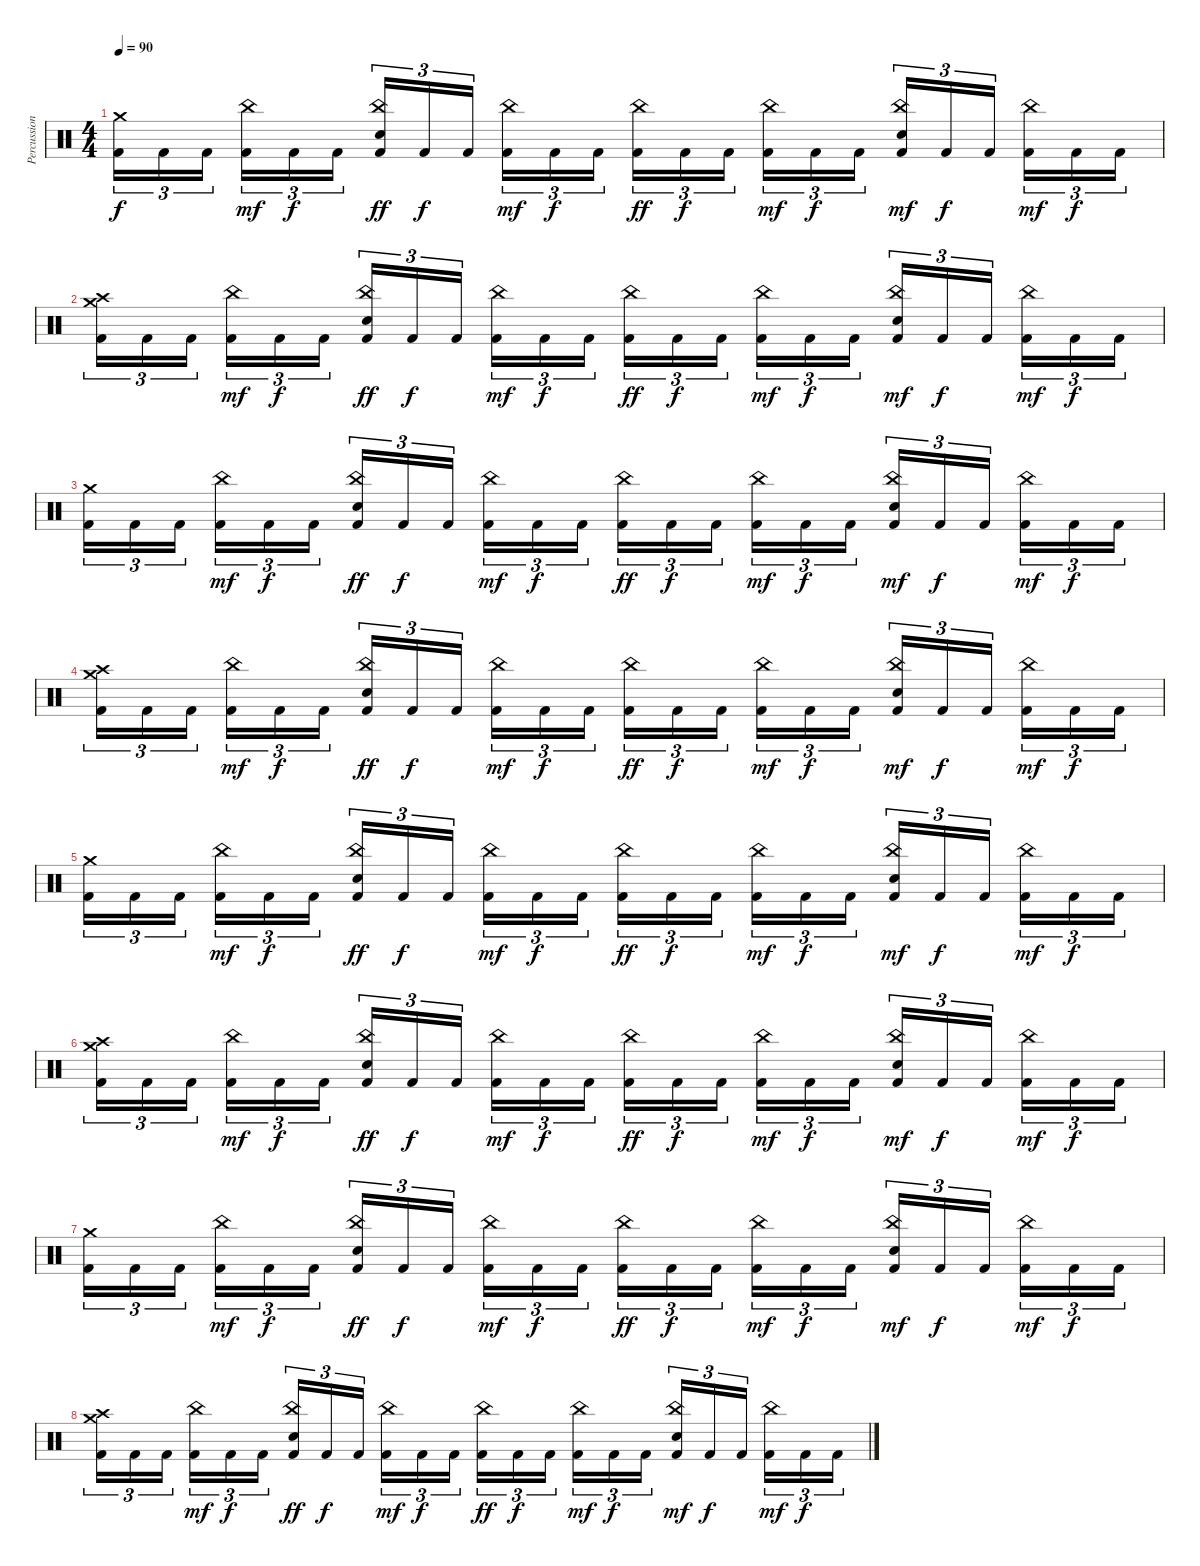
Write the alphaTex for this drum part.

\track ("Percussion" "Percussion") {instrument percussion}
\staff {score}
\articulation defaults
\ts (4 4)
\tempo 90
\clef neutral
\ks c
("Crash medium (hit)" "Kick (hit) 2").16{tu (3 2) dy f} "Kick (hit) 2".16{tu (3 2)} "Kick (hit) 2".16{tu (3 2) beam splitsecondary} ("China (hit)" "Kick (hit) 2").16{tu (3 2) dy mf} "Kick (hit) 2".16{tu (3 2) dy f} "Kick (hit) 2".16{tu (3 2)} ("China (hit)" "Electric Snare (hit)" "Kick (hit) 2").16{tu (3 2) dy ff} "Kick (hit) 2".16{tu (3 2) dy f} "Kick (hit) 2".16{tu (3 2) beam splitsecondary} ("China (hit)" "Kick (hit) 2").16{tu (3 2) dy mf} "Kick (hit) 2".16{tu (3 2) dy f} "Kick (hit) 2".16{tu (3 2)} ("China (hit)" "Kick (hit) 2").16{tu (3 2) dy ff} "Kick (hit) 2".16{tu (3 2) dy f} "Kick (hit) 2".16{tu (3 2) beam splitsecondary} ("China (hit)" "Kick (hit) 2").16{tu (3 2) dy mf} "Kick (hit) 2".16{tu (3 2) dy f} "Kick (hit) 2".16{tu (3 2)} ("China (hit)" "Electric Snare (hit)" "Kick (hit) 2").16{tu (3 2) dy mf} "Kick (hit) 2".16{tu (3 2) dy f} "Kick (hit) 2".16{tu (3 2) beam splitsecondary} ("China (hit)" "Kick (hit) 2").16{tu (3 2) dy mf} "Kick (hit) 2".16{tu (3 2) dy f} "Kick (hit) 2".16{tu (3 2)} |
("Crash medium (hit)" "Crash high (hit)" "Kick (hit) 2").16{tu (3 2)} "Kick (hit) 2".16{tu (3 2)} "Kick (hit) 2".16{tu (3 2) beam splitsecondary} ("China (hit)" "Kick (hit) 2").16{tu (3 2) dy mf} "Kick (hit) 2".16{tu (3 2) dy f} "Kick (hit) 2".16{tu (3 2)} ("China (hit)" "Electric Snare (hit)" "Kick (hit) 2").16{tu (3 2) dy ff} "Kick (hit) 2".16{tu (3 2) dy f} "Kick (hit) 2".16{tu (3 2) beam splitsecondary} ("China (hit)" "Kick (hit) 2").16{tu (3 2) dy mf} "Kick (hit) 2".16{tu (3 2) dy f} "Kick (hit) 2".16{tu (3 2)} ("China (hit)" "Kick (hit) 2").16{tu (3 2) dy ff} "Kick (hit) 2".16{tu (3 2) dy f} "Kick (hit) 2".16{tu (3 2) beam splitsecondary} ("China (hit)" "Kick (hit) 2").16{tu (3 2) dy mf} "Kick (hit) 2".16{tu (3 2) dy f} "Kick (hit) 2".16{tu (3 2)} ("China (hit)" "Electric Snare (hit)" "Kick (hit) 2").16{tu (3 2) dy mf} "Kick (hit) 2".16{tu (3 2) dy f} "Kick (hit) 2".16{tu (3 2) beam splitsecondary} ("China (hit)" "Kick (hit) 2").16{tu (3 2) dy mf} "Kick (hit) 2".16{tu (3 2) dy f} "Kick (hit) 2".16{tu (3 2)} |
("Crash medium (hit)" "Kick (hit) 2").16{tu (3 2)} "Kick (hit) 2".16{tu (3 2)} "Kick (hit) 2".16{tu (3 2) beam splitsecondary} ("China (hit)" "Kick (hit) 2").16{tu (3 2) dy mf} "Kick (hit) 2".16{tu (3 2) dy f} "Kick (hit) 2".16{tu (3 2)} ("China (hit)" "Electric Snare (hit)" "Kick (hit) 2").16{tu (3 2) dy ff} "Kick (hit) 2".16{tu (3 2) dy f} "Kick (hit) 2".16{tu (3 2) beam splitsecondary} ("China (hit)" "Kick (hit) 2").16{tu (3 2) dy mf} "Kick (hit) 2".16{tu (3 2) dy f} "Kick (hit) 2".16{tu (3 2)} ("China (hit)" "Kick (hit) 2").16{tu (3 2) dy ff} "Kick (hit) 2".16{tu (3 2) dy f} "Kick (hit) 2".16{tu (3 2) beam splitsecondary} ("China (hit)" "Kick (hit) 2").16{tu (3 2) dy mf} "Kick (hit) 2".16{tu (3 2) dy f} "Kick (hit) 2".16{tu (3 2)} ("China (hit)" "Electric Snare (hit)" "Kick (hit) 2").16{tu (3 2) dy mf} "Kick (hit) 2".16{tu (3 2) dy f} "Kick (hit) 2".16{tu (3 2) beam splitsecondary} ("China (hit)" "Kick (hit) 2").16{tu (3 2) dy mf} "Kick (hit) 2".16{tu (3 2) dy f} "Kick (hit) 2".16{tu (3 2)} |
("Crash medium (hit)" "Crash high (hit)" "Kick (hit) 2").16{tu (3 2)} "Kick (hit) 2".16{tu (3 2)} "Kick (hit) 2".16{tu (3 2) beam splitsecondary} ("China (hit)" "Kick (hit) 2").16{tu (3 2) dy mf} "Kick (hit) 2".16{tu (3 2) dy f} "Kick (hit) 2".16{tu (3 2)} ("China (hit)" "Electric Snare (hit)" "Kick (hit) 2").16{tu (3 2) dy ff} "Kick (hit) 2".16{tu (3 2) dy f} "Kick (hit) 2".16{tu (3 2) beam splitsecondary} ("China (hit)" "Kick (hit) 2").16{tu (3 2) dy mf} "Kick (hit) 2".16{tu (3 2) dy f} "Kick (hit) 2".16{tu (3 2)} ("China (hit)" "Kick (hit) 2").16{tu (3 2) dy ff} "Kick (hit) 2".16{tu (3 2) dy f} "Kick (hit) 2".16{tu (3 2) beam splitsecondary} ("China (hit)" "Kick (hit) 2").16{tu (3 2) dy mf} "Kick (hit) 2".16{tu (3 2) dy f} "Kick (hit) 2".16{tu (3 2)} ("China (hit)" "Electric Snare (hit)" "Kick (hit) 2").16{tu (3 2) dy mf} "Kick (hit) 2".16{tu (3 2) dy f} "Kick (hit) 2".16{tu (3 2) beam splitsecondary} ("China (hit)" "Kick (hit) 2").16{tu (3 2) dy mf} "Kick (hit) 2".16{tu (3 2) dy f} "Kick (hit) 2".16{tu (3 2)} |
("Crash medium (hit)" "Kick (hit) 2").16{tu (3 2)} "Kick (hit) 2".16{tu (3 2)} "Kick (hit) 2".16{tu (3 2) beam splitsecondary} ("China (hit)" "Kick (hit) 2").16{tu (3 2) dy mf} "Kick (hit) 2".16{tu (3 2) dy f} "Kick (hit) 2".16{tu (3 2)} ("China (hit)" "Electric Snare (hit)" "Kick (hit) 2").16{tu (3 2) dy ff} "Kick (hit) 2".16{tu (3 2) dy f} "Kick (hit) 2".16{tu (3 2) beam splitsecondary} ("China (hit)" "Kick (hit) 2").16{tu (3 2) dy mf} "Kick (hit) 2".16{tu (3 2) dy f} "Kick (hit) 2".16{tu (3 2)} ("China (hit)" "Kick (hit) 2").16{tu (3 2) dy ff} "Kick (hit) 2".16{tu (3 2) dy f} "Kick (hit) 2".16{tu (3 2) beam splitsecondary} ("China (hit)" "Kick (hit) 2").16{tu (3 2) dy mf} "Kick (hit) 2".16{tu (3 2) dy f} "Kick (hit) 2".16{tu (3 2)} ("China (hit)" "Electric Snare (hit)" "Kick (hit) 2").16{tu (3 2) dy mf} "Kick (hit) 2".16{tu (3 2) dy f} "Kick (hit) 2".16{tu (3 2) beam splitsecondary} ("China (hit)" "Kick (hit) 2").16{tu (3 2) dy mf} "Kick (hit) 2".16{tu (3 2) dy f} "Kick (hit) 2".16{tu (3 2)} |
("Crash medium (hit)" "Crash high (hit)" "Kick (hit) 2").16{tu (3 2)} "Kick (hit) 2".16{tu (3 2)} "Kick (hit) 2".16{tu (3 2) beam splitsecondary} ("China (hit)" "Kick (hit) 2").16{tu (3 2) dy mf} "Kick (hit) 2".16{tu (3 2) dy f} "Kick (hit) 2".16{tu (3 2)} ("China (hit)" "Electric Snare (hit)" "Kick (hit) 2").16{tu (3 2) dy ff} "Kick (hit) 2".16{tu (3 2) dy f} "Kick (hit) 2".16{tu (3 2) beam splitsecondary} ("China (hit)" "Kick (hit) 2").16{tu (3 2) dy mf} "Kick (hit) 2".16{tu (3 2) dy f} "Kick (hit) 2".16{tu (3 2)} ("China (hit)" "Kick (hit) 2").16{tu (3 2) dy ff} "Kick (hit) 2".16{tu (3 2) dy f} "Kick (hit) 2".16{tu (3 2) beam splitsecondary} ("China (hit)" "Kick (hit) 2").16{tu (3 2) dy mf} "Kick (hit) 2".16{tu (3 2) dy f} "Kick (hit) 2".16{tu (3 2)} ("China (hit)" "Electric Snare (hit)" "Kick (hit) 2").16{tu (3 2) dy mf} "Kick (hit) 2".16{tu (3 2) dy f} "Kick (hit) 2".16{tu (3 2) beam splitsecondary} ("China (hit)" "Kick (hit) 2").16{tu (3 2) dy mf} "Kick (hit) 2".16{tu (3 2) dy f} "Kick (hit) 2".16{tu (3 2)} |
("Crash medium (hit)" "Kick (hit) 2").16{tu (3 2)} "Kick (hit) 2".16{tu (3 2)} "Kick (hit) 2".16{tu (3 2) beam splitsecondary} ("China (hit)" "Kick (hit) 2").16{tu (3 2) dy mf} "Kick (hit) 2".16{tu (3 2) dy f} "Kick (hit) 2".16{tu (3 2)} ("China (hit)" "Electric Snare (hit)" "Kick (hit) 2").16{tu (3 2) dy ff} "Kick (hit) 2".16{tu (3 2) dy f} "Kick (hit) 2".16{tu (3 2) beam splitsecondary} ("China (hit)" "Kick (hit) 2").16{tu (3 2) dy mf} "Kick (hit) 2".16{tu (3 2) dy f} "Kick (hit) 2".16{tu (3 2)} ("China (hit)" "Kick (hit) 2").16{tu (3 2) dy ff} "Kick (hit) 2".16{tu (3 2) dy f} "Kick (hit) 2".16{tu (3 2) beam splitsecondary} ("China (hit)" "Kick (hit) 2").16{tu (3 2) dy mf} "Kick (hit) 2".16{tu (3 2) dy f} "Kick (hit) 2".16{tu (3 2)} ("China (hit)" "Electric Snare (hit)" "Kick (hit) 2").16{tu (3 2) dy mf} "Kick (hit) 2".16{tu (3 2) dy f} "Kick (hit) 2".16{tu (3 2) beam splitsecondary} ("China (hit)" "Kick (hit) 2").16{tu (3 2) dy mf} "Kick (hit) 2".16{tu (3 2) dy f} "Kick (hit) 2".16{tu (3 2)} |
("Crash medium (hit)" "Crash high (hit)" "Kick (hit) 2").16{tu (3 2)} "Kick (hit) 2".16{tu (3 2)} "Kick (hit) 2".16{tu (3 2) beam splitsecondary} ("China (hit)" "Kick (hit) 2").16{tu (3 2) dy mf} "Kick (hit) 2".16{tu (3 2) dy f} "Kick (hit) 2".16{tu (3 2)} ("China (hit)" "Electric Snare (hit)" "Kick (hit) 2").16{tu (3 2) dy ff} "Kick (hit) 2".16{tu (3 2) dy f} "Kick (hit) 2".16{tu (3 2) beam splitsecondary} ("China (hit)" "Kick (hit) 2").16{tu (3 2) dy mf} "Kick (hit) 2".16{tu (3 2) dy f} "Kick (hit) 2".16{tu (3 2)} ("China (hit)" "Kick (hit) 2").16{tu (3 2) dy ff} "Kick (hit) 2".16{tu (3 2) dy f} "Kick (hit) 2".16{tu (3 2) beam splitsecondary} ("China (hit)" "Kick (hit) 2").16{tu (3 2) dy mf} "Kick (hit) 2".16{tu (3 2) dy f} "Kick (hit) 2".16{tu (3 2)} ("China (hit)" "Electric Snare (hit)" "Kick (hit) 2").16{tu (3 2) dy mf} "Kick (hit) 2".16{tu (3 2) dy f} "Kick (hit) 2".16{tu (3 2) beam splitsecondary} ("China (hit)" "Kick (hit) 2").16{tu (3 2) dy mf} "Kick (hit) 2".16{tu (3 2) dy f} "Kick (hit) 2".16{tu (3 2)}
